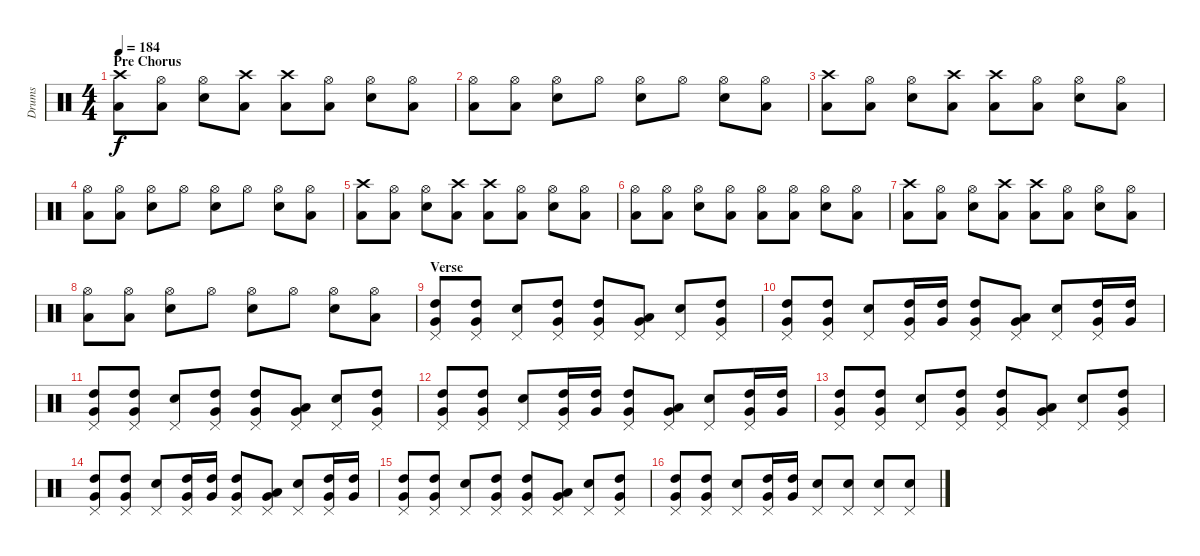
\track ("Drums" "Drums") {instrument percussion}
\staff {score}
\articulation defaults
\ts (4 4)
\section ("" "Pre Chorus")
\tempo 184
\clef neutral
\ks c
("Crash high (hit)" "Low Tom (hit)").8{dy f} ("Hi-Hat (open)" "Low Tom (hit)").8 ("Hi-Hat (open)" "Electric Snare (hit)").8 ("Crash high (hit)" "Low Tom (hit)").8 ("Crash high (hit)" "Low Tom (hit)").8 ("Hi-Hat (open)" "Low Tom (hit)").8 ("Hi-Hat (open)" "Electric Snare (hit)").8 ("Hi-Hat (open)" "Low Tom (hit)").8 |
("Hi-Hat (open)" "Low Tom (hit)").8 ("Hi-Hat (open)" "Low Tom (hit)").8 ("Hi-Hat (open)" "Electric Snare (hit)").8 "Hi-Hat (open)".8 ("Hi-Hat (open)" "Electric Snare (hit)").8 "Hi-Hat (open)".8 ("Hi-Hat (open)" "Electric Snare (hit)").8 ("Hi-Hat (open)" "Low Tom (hit)").8 |
("Crash high (hit)" "Low Tom (hit)").8 ("Hi-Hat (open)" "Low Tom (hit)").8 ("Hi-Hat (open)" "Electric Snare (hit)").8 ("Crash high (hit)" "Low Tom (hit)").8 ("Crash high (hit)" "Low Tom (hit)").8 ("Hi-Hat (open)" "Low Tom (hit)").8 ("Hi-Hat (open)" "Electric Snare (hit)").8 ("Hi-Hat (open)" "Low Tom (hit)").8 |
("Hi-Hat (open)" "Low Tom (hit)").8 ("Hi-Hat (open)" "Low Tom (hit)").8 ("Hi-Hat (open)" "Electric Snare (hit)").8 "Hi-Hat (open)".8 ("Hi-Hat (open)" "Electric Snare (hit)").8 "Hi-Hat (open)".8 ("Hi-Hat (open)" "Electric Snare (hit)").8 ("Hi-Hat (open)" "Low Tom (hit)").8 |
("Crash high (hit)" "Low Tom (hit)").8 ("Hi-Hat (open)" "Low Tom (hit)").8 ("Hi-Hat (open)" "Electric Snare (hit)").8 ("Crash high (hit)" "Low Tom (hit)").8 ("Crash high (hit)" "Low Tom (hit)").8 ("Hi-Hat (open)" "Low Tom (hit)").8 ("Hi-Hat (open)" "Electric Snare (hit)").8 ("Hi-Hat (open)" "Low Tom (hit)").8 |
("Hi-Hat (open)" "Low Tom (hit)").8 ("Hi-Hat (open)" "Low Tom (hit)").8 ("Hi-Hat (open)" "Electric Snare (hit)").8 ("Hi-Hat (open)" "Low Tom (hit)").8 ("Hi-Hat (open)" "Low Tom (hit)").8 ("Hi-Hat (open)" "Low Tom (hit)").8 ("Hi-Hat (open)" "Electric Snare (hit)").8 ("Hi-Hat (open)" "Low Tom (hit)").8 |
("Crash high (hit)" "Low Tom (hit)").8 ("Hi-Hat (open)" "Low Tom (hit)").8 ("Hi-Hat (open)" "Electric Snare (hit)").8 ("Crash high (hit)" "Low Tom (hit)").8 ("Crash high (hit)" "Low Tom (hit)").8 ("Hi-Hat (open)" "Low Tom (hit)").8 ("Hi-Hat (open)" "Electric Snare (hit)").8 ("Hi-Hat (open)" "Low Tom (hit)").8 |
("Hi-Hat (open)" "Low Tom (hit)").8 ("Hi-Hat (open)" "Low Tom (hit)").8 ("Hi-Hat (open)" "Electric Snare (hit)").8 "Hi-Hat (open)".8 ("Hi-Hat (open)" "Electric Snare (hit)").8 "Hi-Hat (open)".8 ("Hi-Hat (open)" "Electric Snare (hit)").8 ("Hi-Hat (open)" "Low Tom (hit)").8 |
\section ("" "Verse")
("Pedal Hi-Hat (hit)" "High Tom (hit)" "Very Low Tom (hit)").8 ("Pedal Hi-Hat (hit)" "High Tom (hit)" "Very Low Tom (hit)").8 ("Pedal Hi-Hat (hit)" "Electric Snare (hit)").8 ("Pedal Hi-Hat (hit)" "High Tom (hit)" "Very Low Tom (hit)").8 ("Pedal Hi-Hat (hit)" "High Tom (hit)" "Very Low Tom (hit)").8 ("Pedal Hi-Hat (hit)" "Low Tom (hit)" "Very Low Tom (hit)").8 ("Pedal Hi-Hat (hit)" "Electric Snare (hit)").8 ("Pedal Hi-Hat (hit)" "High Tom (hit)" "Very Low Tom (hit)").8 |
("Pedal Hi-Hat (hit)" "High Tom (hit)" "Very Low Tom (hit)").8 ("Pedal Hi-Hat (hit)" "High Tom (hit)" "Very Low Tom (hit)").8 ("Pedal Hi-Hat (hit)" "Electric Snare (hit)").8 ("Pedal Hi-Hat (hit)" "High Tom (hit)" "Very Low Tom (hit)").16 ("High Tom (hit)" "Very Low Tom (hit)").16 ("Pedal Hi-Hat (hit)" "High Tom (hit)" "Very Low Tom (hit)").8 ("Pedal Hi-Hat (hit)" "Low Tom (hit)" "Very Low Tom (hit)").8 ("Pedal Hi-Hat (hit)" "Electric Snare (hit)").8 ("Pedal Hi-Hat (hit)" "High Tom (hit)" "Very Low Tom (hit)").16 ("High Tom (hit)" "Very Low Tom (hit)").16 |
("Pedal Hi-Hat (hit)" "High Tom (hit)" "Very Low Tom (hit)").8 ("Pedal Hi-Hat (hit)" "High Tom (hit)" "Very Low Tom (hit)").8 ("Pedal Hi-Hat (hit)" "Electric Snare (hit)").8 ("Pedal Hi-Hat (hit)" "High Tom (hit)" "Very Low Tom (hit)").8 ("Pedal Hi-Hat (hit)" "High Tom (hit)" "Very Low Tom (hit)").8 ("Pedal Hi-Hat (hit)" "Low Tom (hit)" "Very Low Tom (hit)").8 ("Pedal Hi-Hat (hit)" "Electric Snare (hit)").8 ("Pedal Hi-Hat (hit)" "High Tom (hit)" "Very Low Tom (hit)").8 |
("Pedal Hi-Hat (hit)" "High Tom (hit)" "Very Low Tom (hit)").8 ("Pedal Hi-Hat (hit)" "High Tom (hit)" "Very Low Tom (hit)").8 ("Pedal Hi-Hat (hit)" "Electric Snare (hit)").8 ("Pedal Hi-Hat (hit)" "High Tom (hit)" "Very Low Tom (hit)").16 ("High Tom (hit)" "Very Low Tom (hit)").16 ("Pedal Hi-Hat (hit)" "High Tom (hit)" "Very Low Tom (hit)").8 ("Pedal Hi-Hat (hit)" "Low Tom (hit)" "Very Low Tom (hit)").8 ("Pedal Hi-Hat (hit)" "Electric Snare (hit)").8 ("Pedal Hi-Hat (hit)" "High Tom (hit)" "Very Low Tom (hit)").16 ("High Tom (hit)" "Very Low Tom (hit)").16 |
("Pedal Hi-Hat (hit)" "High Tom (hit)" "Very Low Tom (hit)").8 ("Pedal Hi-Hat (hit)" "High Tom (hit)" "Very Low Tom (hit)").8 ("Pedal Hi-Hat (hit)" "Electric Snare (hit)").8 ("Pedal Hi-Hat (hit)" "High Tom (hit)" "Very Low Tom (hit)").8 ("Pedal Hi-Hat (hit)" "High Tom (hit)" "Very Low Tom (hit)").8 ("Pedal Hi-Hat (hit)" "Low Tom (hit)" "Very Low Tom (hit)").8 ("Pedal Hi-Hat (hit)" "Electric Snare (hit)").8 ("Pedal Hi-Hat (hit)" "High Tom (hit)" "Very Low Tom (hit)").8 |
("Pedal Hi-Hat (hit)" "High Tom (hit)" "Very Low Tom (hit)").8 ("Pedal Hi-Hat (hit)" "High Tom (hit)" "Very Low Tom (hit)").8 ("Pedal Hi-Hat (hit)" "Electric Snare (hit)").8 ("Pedal Hi-Hat (hit)" "High Tom (hit)" "Very Low Tom (hit)").16 ("High Tom (hit)" "Very Low Tom (hit)").16 ("Pedal Hi-Hat (hit)" "High Tom (hit)" "Very Low Tom (hit)").8 ("Pedal Hi-Hat (hit)" "Low Tom (hit)" "Very Low Tom (hit)").8 ("Pedal Hi-Hat (hit)" "Electric Snare (hit)").8 ("Pedal Hi-Hat (hit)" "High Tom (hit)" "Very Low Tom (hit)").16 ("High Tom (hit)" "Very Low Tom (hit)").16 |
("Pedal Hi-Hat (hit)" "High Tom (hit)" "Very Low Tom (hit)").8 ("Pedal Hi-Hat (hit)" "High Tom (hit)" "Very Low Tom (hit)").8 ("Pedal Hi-Hat (hit)" "Electric Snare (hit)").8 ("Pedal Hi-Hat (hit)" "High Tom (hit)" "Very Low Tom (hit)").8 ("Pedal Hi-Hat (hit)" "High Tom (hit)" "Very Low Tom (hit)").8 ("Pedal Hi-Hat (hit)" "Low Tom (hit)" "Very Low Tom (hit)").8 ("Pedal Hi-Hat (hit)" "Electric Snare (hit)").8 ("Pedal Hi-Hat (hit)" "High Tom (hit)" "Very Low Tom (hit)").8 |
("Pedal Hi-Hat (hit)" "High Tom (hit)" "Very Low Tom (hit)").8 ("Pedal Hi-Hat (hit)" "High Tom (hit)" "Very Low Tom (hit)").8 ("Pedal Hi-Hat (hit)" "Electric Snare (hit)").8 ("Pedal Hi-Hat (hit)" "High Tom (hit)" "Very Low Tom (hit)").16 ("High Tom (hit)" "Very Low Tom (hit)").16 ("Pedal Hi-Hat (hit)" "Electric Snare (hit)").8 ("Pedal Hi-Hat (hit)" "Electric Snare (hit)").8 ("Pedal Hi-Hat (hit)" "Electric Snare (hit)").8 ("Pedal Hi-Hat (hit)" "Electric Snare (hit)").8
